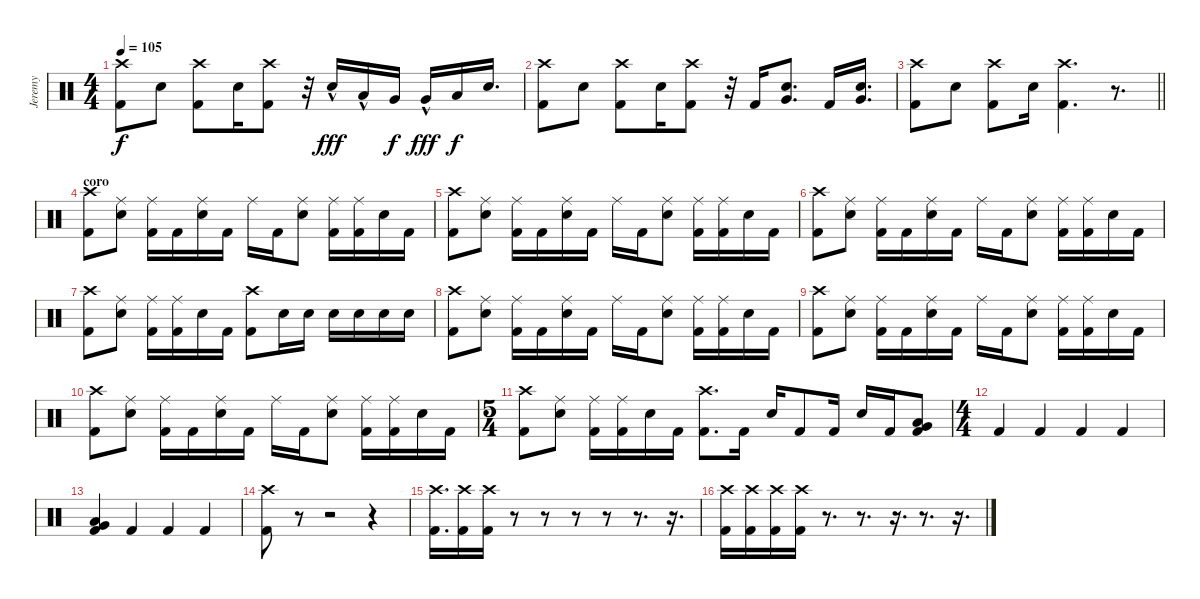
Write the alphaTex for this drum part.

\track ("Jeremy" "Jeremy") {instrument percussion}
\staff {score}
\articulation defaults
\ts (4 4)
\tempo 105
\clef neutral
\ks c
("Crash high (hit)" "Kick (hit) 2").8{dy f} "Snare (hit) 2".8 ("Crash high (hit)" "Kick (hit) 2").8 "Snare (hit) 2".16 ("Crash high (hit)" "Kick (hit) 2").8 r.32 "Snare (hit) 2"{hac}.16{dy fff} "Low Tom (hit)"{hac}.16 "Very Low Tom (hit)".16{dy f} "Very Low Tom (hit)"{hac}.16{dy fff} "Low Floor Tom (hit)".16{dy f} "Snare (hit) 2".16{d} |
("Crash high (hit)" "Kick (hit) 2").8 "Snare (hit) 2".8 ("Crash high (hit)" "Kick (hit) 2").8 "Snare (hit) 2".16 ("Crash high (hit)" "Kick (hit) 2").8 r.32 "Kick (hit) 2".16 ("Very Low Tom (hit)" "Snare (hit) 2").8{d} "Kick (hit) 2".16 ("Very Low Tom (hit)" "Snare (hit) 2").16{d} |
\barLineRight lightlight
("Crash high (hit)" "Kick (hit) 2").8 "Snare (hit) 2".8 ("Crash high (hit)" "Kick (hit) 2").8 "Snare (hit) 2".16 ("Crash high (hit)" "Kick (hit) 2").4{d} r.8{d} |
\section ("" "coro")
("Crash high (hit)" "Kick (hit) 2").8 ("Ride (middle)" "Snare (hit) 2").8 ("Ride (middle)" "Kick (hit) 2").16 "Kick (hit) 2".16 ("Ride (middle)" "Snare (hit) 2").16 "Kick (hit) 2".16 "Ride (middle)".16 "Kick (hit) 2".16 ("Ride (middle)" "Snare (hit) 2").8 ("Ride (middle)" "Kick (hit) 2").16 ("Ride (middle)" "Kick (hit) 2").16 "Snare (hit) 2".16 "Kick (hit) 2".16 |
("Crash high (hit)" "Kick (hit) 2").8 ("Ride (middle)" "Snare (hit) 2").8 ("Ride (middle)" "Kick (hit) 2").16 "Kick (hit) 2".16 ("Ride (middle)" "Snare (hit) 2").16 "Kick (hit) 2".16 "Ride (middle)".16 "Kick (hit) 2".16 ("Ride (middle)" "Snare (hit) 2").8 ("Ride (middle)" "Kick (hit) 2").16 ("Ride (middle)" "Kick (hit) 2").16 "Snare (hit) 2".16 "Kick (hit) 2".16 |
("Crash high (hit)" "Kick (hit) 2").8 ("Ride (middle)" "Snare (hit) 2").8 ("Ride (middle)" "Kick (hit) 2").16 "Kick (hit) 2".16 ("Ride (middle)" "Snare (hit) 2").16 "Kick (hit) 2".16 "Ride (middle)".16 "Kick (hit) 2".16 ("Ride (middle)" "Snare (hit) 2").8 ("Ride (middle)" "Kick (hit) 2").16 ("Ride (middle)" "Kick (hit) 2").16 "Snare (hit) 2".16 "Kick (hit) 2".16 |
("Crash high (hit)" "Kick (hit) 2").8 ("Ride (middle)" "Snare (hit) 2").8 ("Ride (middle)" "Kick (hit) 2").16 ("Ride (middle)" "Kick (hit) 2").16 "Snare (hit) 2".16 "Kick (hit) 2".16 ("Crash high (hit)" "Kick (hit) 2").8 "Snare (hit) 2".16 "Snare (hit) 2".16 "Snare (hit) 2".16 "Snare (hit) 2".16 "Snare (hit) 2".16 "Snare (hit) 2".16 |
("Crash high (hit)" "Kick (hit) 2").8 ("Ride (middle)" "Snare (hit) 2").8 ("Ride (middle)" "Kick (hit) 2").16 "Kick (hit) 2".16 ("Ride (middle)" "Snare (hit) 2").16 "Kick (hit) 2".16 "Ride (middle)".16 "Kick (hit) 2".16 ("Ride (middle)" "Snare (hit) 2").8 ("Ride (middle)" "Kick (hit) 2").16 ("Ride (middle)" "Kick (hit) 2").16 "Snare (hit) 2".16 "Kick (hit) 2".16 |
("Crash high (hit)" "Kick (hit) 2").8 ("Ride (middle)" "Snare (hit) 2").8 ("Ride (middle)" "Kick (hit) 2").16 "Kick (hit) 2".16 ("Ride (middle)" "Snare (hit) 2").16 "Kick (hit) 2".16 "Ride (middle)".16 "Kick (hit) 2".16 ("Ride (middle)" "Snare (hit) 2").8 ("Ride (middle)" "Kick (hit) 2").16 ("Ride (middle)" "Kick (hit) 2").16 "Snare (hit) 2".16 "Kick (hit) 2".16 |
("Crash high (hit)" "Kick (hit) 2").8 ("Ride (middle)" "Snare (hit) 2").8 ("Ride (middle)" "Kick (hit) 2").16 "Kick (hit) 2".16 ("Ride (middle)" "Snare (hit) 2").16 "Kick (hit) 2".16 "Ride (middle)".16 "Kick (hit) 2".16 ("Ride (middle)" "Snare (hit) 2").8 ("Ride (middle)" "Kick (hit) 2").16 ("Ride (middle)" "Kick (hit) 2").16 "Snare (hit) 2".16 "Kick (hit) 2".16 |
\ts (5 4)
("Crash high (hit)" "Kick (hit) 2").8 ("Ride (middle)" "Snare (hit) 2").8 ("Ride (middle)" "Kick (hit) 2").16 ("Ride (middle)" "Kick (hit) 2").16 "Snare (hit) 2".16 "Kick (hit) 2".16 ("Crash high (hit)" "Kick (hit) 2").8{d} "Kick (hit) 2".16 "Snare (hit) 2".16 "Kick (hit) 2".8 "Kick (hit) 2".16 "Snare (hit) 2".16 "Kick (hit) 2".16 ("Very Low Tom (hit)" "Low Floor Tom (hit)" "Kick (hit) 2").8 |
\ts (4 4)
"Kick (hit) 2".4 "Kick (hit) 2".4 "Kick (hit) 2".4 "Kick (hit) 2".4 |
("Low Floor Tom (hit)" "Very Low Tom (hit)" "Kick (hit) 2").4 "Kick (hit) 2".4 "Kick (hit) 2".4 "Kick (hit) 2".4 |
("Crash high (hit)" "Kick (hit) 2").8 r.8 r.2 r.4 |
("Crash high (hit)" "Kick (hit) 2").16{d} ("Crash high (hit)" "Kick (hit) 2").16 ("Crash high (hit)" "Kick (hit) 2").16 r.8 r.8 r.8 r.8 r.8{d} r.16{d} |
("Crash high (hit)" "Kick (hit) 2").16 ("Crash high (hit)" "Kick (hit) 2").16 ("Crash high (hit)" "Kick (hit) 2").16 ("Crash high (hit)" "Kick (hit) 2").16 r.8{d} r.8{d} r.16{d} r.8{d} r.16{d}
